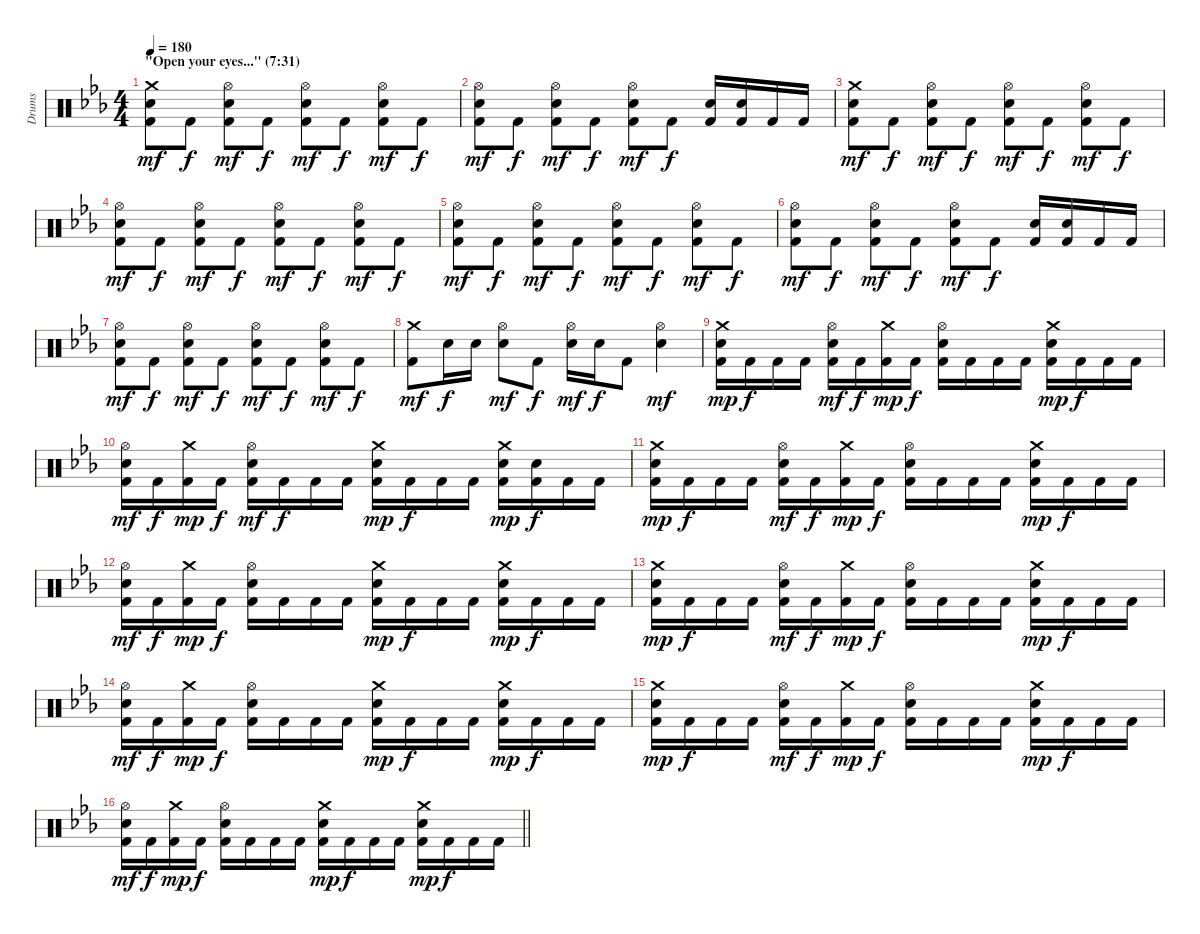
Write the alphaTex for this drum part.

\track ("Drums" "Drums") {instrument percussion}
\staff {score}
\articulation defaults
\ts (4 4)
\section ("" "\"Open your eyes...\" (7:31)")
\tempo 180
\clef neutral
\ks eb
("Crash medium (hit)" "Electric Snare (hit)" "Kick (hit) 2").8{dy mf} "Kick (hit) 2".8{dy f} ("Hi-Hat (open)" "Electric Snare (hit)" "Kick (hit) 2").8{dy mf} "Kick (hit) 2".8{dy f} ("Hi-Hat (open)" "Electric Snare (hit)" "Kick (hit) 2").8{dy mf} "Kick (hit) 2".8{dy f} ("Hi-Hat (open)" "Electric Snare (hit)" "Kick (hit) 2").8{dy mf} "Kick (hit) 2".8{dy f} |
("Hi-Hat (open)" "Electric Snare (hit)" "Kick (hit) 2").8{dy mf} "Kick (hit) 2".8{dy f} ("Hi-Hat (open)" "Electric Snare (hit)" "Kick (hit) 2").8{dy mf} "Kick (hit) 2".8{dy f} ("Hi-Hat (open)" "Electric Snare (hit)" "Kick (hit) 2").8{dy mf} "Kick (hit) 2".8{dy f} ("Electric Snare (hit)" "Kick (hit) 2").16 ("Electric Snare (hit)" "Kick (hit) 2").16 "Kick (hit) 2".16 "Kick (hit) 2".16 |
("Crash medium (hit)" "Electric Snare (hit)" "Kick (hit) 2").8{dy mf} "Kick (hit) 2".8{dy f} ("Hi-Hat (open)" "Electric Snare (hit)" "Kick (hit) 2").8{dy mf} "Kick (hit) 2".8{dy f} ("Hi-Hat (open)" "Electric Snare (hit)" "Kick (hit) 2").8{dy mf} "Kick (hit) 2".8{dy f} ("Hi-Hat (open)" "Electric Snare (hit)" "Kick (hit) 2").8{dy mf} "Kick (hit) 2".8{dy f} |
("Hi-Hat (open)" "Electric Snare (hit)" "Kick (hit) 2").8{dy mf} "Kick (hit) 2".8{dy f} ("Hi-Hat (open)" "Electric Snare (hit)" "Kick (hit) 2").8{dy mf} "Kick (hit) 2".8{dy f} ("Hi-Hat (open)" "Electric Snare (hit)" "Kick (hit) 2").8{dy mf} "Kick (hit) 2".8{dy f} ("Hi-Hat (open)" "Electric Snare (hit)" "Kick (hit) 2").8{dy mf} "Kick (hit) 2".8{dy f} |
("Hi-Hat (open)" "Electric Snare (hit)" "Kick (hit) 2").8{dy mf} "Kick (hit) 2".8{dy f} ("Hi-Hat (open)" "Electric Snare (hit)" "Kick (hit) 2").8{dy mf} "Kick (hit) 2".8{dy f} ("Hi-Hat (open)" "Electric Snare (hit)" "Kick (hit) 2").8{dy mf} "Kick (hit) 2".8{dy f} ("Hi-Hat (open)" "Electric Snare (hit)" "Kick (hit) 2").8{dy mf} "Kick (hit) 2".8{dy f} |
("Hi-Hat (open)" "Electric Snare (hit)" "Kick (hit) 2").8{dy mf} "Kick (hit) 2".8{dy f} ("Hi-Hat (open)" "Electric Snare (hit)" "Kick (hit) 2").8{dy mf} "Kick (hit) 2".8{dy f} ("Hi-Hat (open)" "Electric Snare (hit)" "Kick (hit) 2").8{dy mf} "Kick (hit) 2".8{dy f} ("Electric Snare (hit)" "Kick (hit) 2").16 ("Electric Snare (hit)" "Kick (hit) 2").16 "Kick (hit) 2".16 "Kick (hit) 2".16 |
("Hi-Hat (open)" "Electric Snare (hit)" "Kick (hit) 2").8{dy mf} "Kick (hit) 2".8{dy f} ("Hi-Hat (open)" "Electric Snare (hit)" "Kick (hit) 2").8{dy mf} "Kick (hit) 2".8{dy f} ("Hi-Hat (open)" "Electric Snare (hit)" "Kick (hit) 2").8{dy mf} "Kick (hit) 2".8{dy f} ("Hi-Hat (open)" "Electric Snare (hit)" "Kick (hit) 2").8{dy mf} "Kick (hit) 2".8{dy f} |
("Crash medium (hit)" "Kick (hit) 2").8{dy mf} "Electric Snare (hit)".16{dy f} "Electric Snare (hit)".16 ("Hi-Hat (open)" "Electric Snare (hit)").8{dy mf} "Kick (hit) 2".8{dy f} ("Hi-Hat (open)" "Electric Snare (hit)").16{dy mf} "Electric Snare (hit)".16{dy f} "Kick (hit) 2".8 ("Hi-Hat (open)" "Electric Snare (hit)").4{dy mf} |
("Crash medium (hit)" "Electric Snare (hit)" "Kick (hit) 2").16{dy mp} "Kick (hit) 2".16{dy f} "Kick (hit) 2".16 "Kick (hit) 2".16 ("Hi-Hat (open)" "Electric Snare (hit)" "Kick (hit) 2").16{dy mf} "Kick (hit) 2".16{dy f} ("Crash medium (hit)" "Kick (hit) 2").16{dy mp} "Kick (hit) 2".16{dy f} ("Hi-Hat (open)" "Electric Snare (hit)" "Kick (hit) 2").16 "Kick (hit) 2".16 "Kick (hit) 2".16 "Kick (hit) 2".16 ("Crash medium (hit)" "Electric Snare (hit)" "Kick (hit) 2").16{dy mp} "Kick (hit) 2".16{dy f} "Kick (hit) 2".16 "Kick (hit) 2".16 |
("Hi-Hat (open)" "Electric Snare (hit)" "Kick (hit) 2").16{dy mf} "Kick (hit) 2".16{dy f} ("Crash medium (hit)" "Kick (hit) 2").16{dy mp} "Kick (hit) 2".16{dy f} ("Hi-Hat (open)" "Electric Snare (hit)" "Kick (hit) 2").16{dy mf} "Kick (hit) 2".16{dy f} "Kick (hit) 2".16 "Kick (hit) 2".16 ("Crash medium (hit)" "Electric Snare (hit)" "Kick (hit) 2").16{dy mp} "Kick (hit) 2".16{dy f} "Kick (hit) 2".16 "Kick (hit) 2".16 ("Crash medium (hit)" "Electric Snare (hit)" "Kick (hit) 2").16{dy mp} ("Electric Snare (hit)" "Kick (hit) 2").16{dy f} "Kick (hit) 2".16 "Kick (hit) 2".16 |
("Crash medium (hit)" "Electric Snare (hit)" "Kick (hit) 2").16{dy mp} "Kick (hit) 2".16{dy f} "Kick (hit) 2".16 "Kick (hit) 2".16 ("Hi-Hat (open)" "Electric Snare (hit)" "Kick (hit) 2").16{dy mf} "Kick (hit) 2".16{dy f} ("Crash medium (hit)" "Kick (hit) 2").16{dy mp} "Kick (hit) 2".16{dy f} ("Hi-Hat (open)" "Electric Snare (hit)" "Kick (hit) 2").16 "Kick (hit) 2".16 "Kick (hit) 2".16 "Kick (hit) 2".16 ("Crash medium (hit)" "Electric Snare (hit)" "Kick (hit) 2").16{dy mp} "Kick (hit) 2".16{dy f} "Kick (hit) 2".16 "Kick (hit) 2".16 |
("Hi-Hat (open)" "Electric Snare (hit)" "Kick (hit) 2").16{dy mf} "Kick (hit) 2".16{dy f} ("Crash medium (hit)" "Kick (hit) 2").16{dy mp} "Kick (hit) 2".16{dy f} ("Hi-Hat (open)" "Electric Snare (hit)" "Kick (hit) 2").16 "Kick (hit) 2".16 "Kick (hit) 2".16 "Kick (hit) 2".16 ("Crash medium (hit)" "Electric Snare (hit)" "Kick (hit) 2").16{dy mp} "Kick (hit) 2".16{dy f} "Kick (hit) 2".16 "Kick (hit) 2".16 ("Crash medium (hit)" "Electric Snare (hit)" "Kick (hit) 2").16{dy mp} "Kick (hit) 2".16{dy f} "Kick (hit) 2".16 "Kick (hit) 2".16 |
("Crash medium (hit)" "Electric Snare (hit)" "Kick (hit) 2").16{dy mp} "Kick (hit) 2".16{dy f} "Kick (hit) 2".16 "Kick (hit) 2".16 ("Hi-Hat (open)" "Electric Snare (hit)" "Kick (hit) 2").16{dy mf} "Kick (hit) 2".16{dy f} ("Crash medium (hit)" "Kick (hit) 2").16{dy mp} "Kick (hit) 2".16{dy f} ("Hi-Hat (open)" "Electric Snare (hit)" "Kick (hit) 2").16 "Kick (hit) 2".16 "Kick (hit) 2".16 "Kick (hit) 2".16 ("Crash medium (hit)" "Electric Snare (hit)" "Kick (hit) 2").16{dy mp} "Kick (hit) 2".16{dy f} "Kick (hit) 2".16 "Kick (hit) 2".16 |
("Hi-Hat (open)" "Electric Snare (hit)" "Kick (hit) 2").16{dy mf} "Kick (hit) 2".16{dy f} ("Crash medium (hit)" "Kick (hit) 2").16{dy mp} "Kick (hit) 2".16{dy f} ("Hi-Hat (open)" "Electric Snare (hit)" "Kick (hit) 2").16 "Kick (hit) 2".16 "Kick (hit) 2".16 "Kick (hit) 2".16 ("Crash medium (hit)" "Electric Snare (hit)" "Kick (hit) 2").16{dy mp} "Kick (hit) 2".16{dy f} "Kick (hit) 2".16 "Kick (hit) 2".16 ("Crash medium (hit)" "Electric Snare (hit)" "Kick (hit) 2").16{dy mp} "Kick (hit) 2".16{dy f} "Kick (hit) 2".16 "Kick (hit) 2".16 |
("Crash medium (hit)" "Electric Snare (hit)" "Kick (hit) 2").16{dy mp} "Kick (hit) 2".16{dy f} "Kick (hit) 2".16 "Kick (hit) 2".16 ("Hi-Hat (open)" "Electric Snare (hit)" "Kick (hit) 2").16{dy mf} "Kick (hit) 2".16{dy f} ("Crash medium (hit)" "Kick (hit) 2").16{dy mp} "Kick (hit) 2".16{dy f} ("Hi-Hat (open)" "Electric Snare (hit)" "Kick (hit) 2").16 "Kick (hit) 2".16 "Kick (hit) 2".16 "Kick (hit) 2".16 ("Crash medium (hit)" "Electric Snare (hit)" "Kick (hit) 2").16{dy mp} "Kick (hit) 2".16{dy f} "Kick (hit) 2".16 "Kick (hit) 2".16 |
\barLineRight lightlight
("Hi-Hat (open)" "Electric Snare (hit)" "Kick (hit) 2").16{dy mf} "Kick (hit) 2".16{dy f} ("Crash medium (hit)" "Kick (hit) 2").16{dy mp} "Kick (hit) 2".16{dy f} ("Hi-Hat (open)" "Electric Snare (hit)" "Kick (hit) 2").16 "Kick (hit) 2".16 "Kick (hit) 2".16 "Kick (hit) 2".16 ("Crash medium (hit)" "Electric Snare (hit)" "Kick (hit) 2").16{dy mp} "Kick (hit) 2".16{dy f} "Kick (hit) 2".16 "Kick (hit) 2".16 ("Crash medium (hit)" "Electric Snare (hit)" "Kick (hit) 2").16{dy mp} "Kick (hit) 2".16{dy f} "Kick (hit) 2".16 "Kick (hit) 2".16
